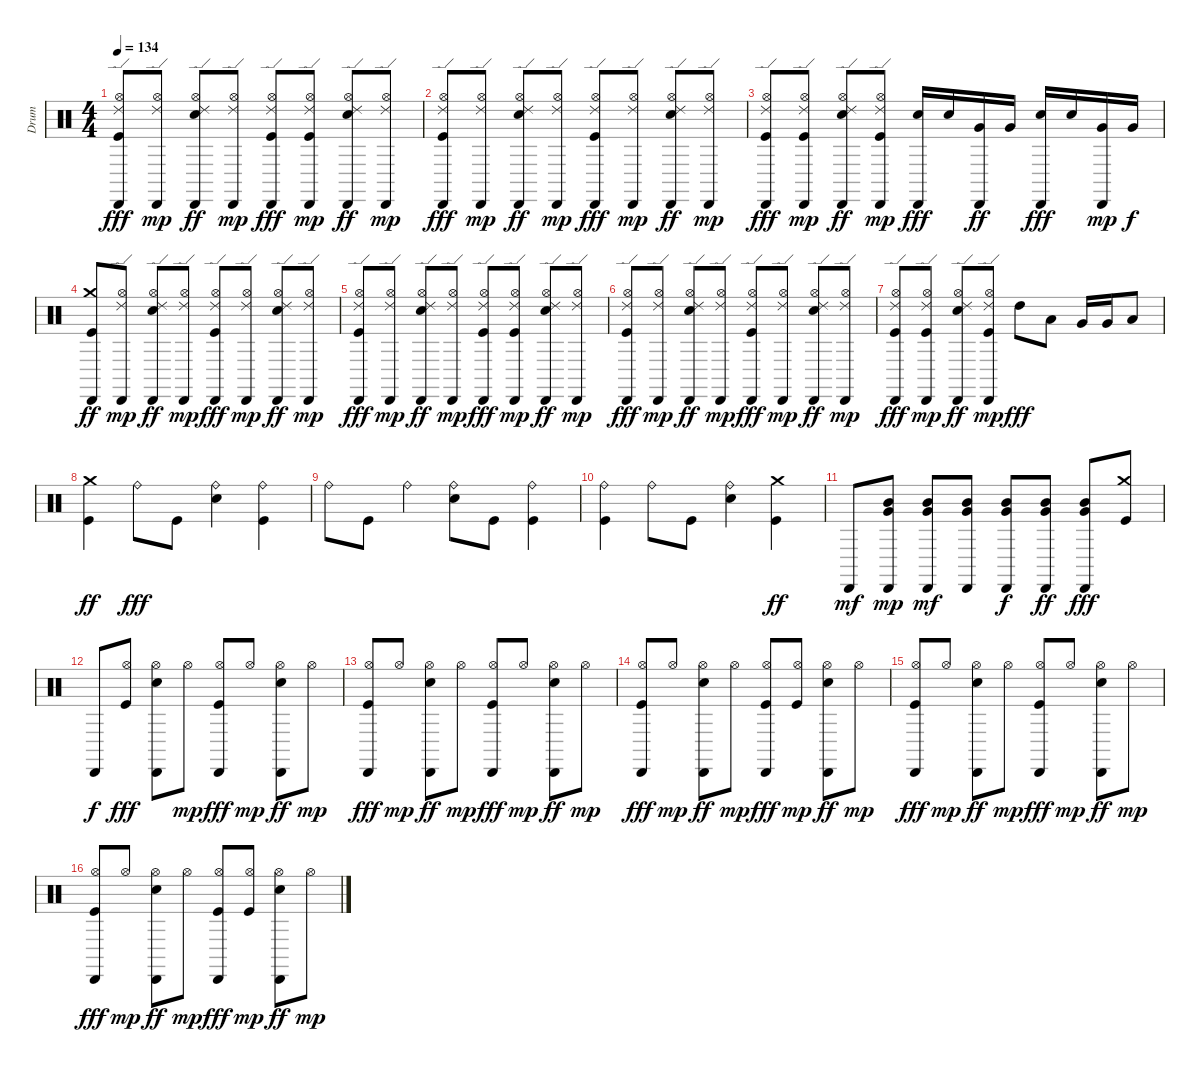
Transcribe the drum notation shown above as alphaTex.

\track ("Drum" "Drum") {instrument percussion}
\staff {score}
\articulation defaults
\ts (4 4)
\tempo 134
\clef neutral
\ks c
("Ride (edge) 2" "Kick (hit)" "Hi-Hat (open)" "Cabasa (hit)").8{dy fff} ("Cabasa (hit)" "Ride (edge) 2" "Hi-Hat (open)").8{dy mp} ("Electric Snare (hit)" "Cabasa (hit)" "Ride (edge) 2" "Hi-Hat (open)").8{dy ff} ("Cabasa (hit)" "Ride (edge) 2" "Hi-Hat (open)").8{dy mp} ("Cabasa (hit)" "Ride (edge) 2" "Kick (hit)" "Hi-Hat (open)").8{dy fff} ("Cabasa (hit)" "Kick (hit)" "Ride (edge) 2" "Hi-Hat (open)").8{dy mp} ("Cabasa (hit)" "Electric Snare (hit)" "Ride (edge) 2" "Hi-Hat (open)").8{dy ff} ("Cabasa (hit)" "Ride (edge) 2" "Hi-Hat (open)").8{dy mp} |
("Ride (edge) 2" "Kick (hit)" "Hi-Hat (open)" "Cabasa (hit)").8{dy fff} ("Cabasa (hit)" "Ride (edge) 2" "Hi-Hat (open)").8{dy mp} ("Electric Snare (hit)" "Cabasa (hit)" "Ride (edge) 2" "Hi-Hat (open)").8{dy ff} ("Cabasa (hit)" "Ride (edge) 2" "Hi-Hat (open)").8{dy mp} ("Cabasa (hit)" "Ride (edge) 2" "Kick (hit)" "Hi-Hat (open)").8{dy fff} ("Cabasa (hit)" "Ride (edge) 2" "Hi-Hat (open)").8{dy mp} ("Cabasa (hit)" "Electric Snare (hit)" "Ride (edge) 2" "Hi-Hat (open)").8{dy ff} ("Cabasa (hit)" "Ride (edge) 2" "Hi-Hat (open)").8{dy mp} |
("Cabasa (hit)" "Ride (edge) 2" "Kick (hit)" "Hi-Hat (open)").8{dy fff} ("Cabasa (hit)" "Kick (hit)" "Ride (edge) 2" "Hi-Hat (open)").8{dy mp} ("Cabasa (hit)" "Electric Snare (hit)" "Ride (edge) 2" "Hi-Hat (open)").8{dy ff} ("Cabasa (hit)" "Kick (hit)" "Ride (edge) 2" "Hi-Hat (open)").8{dy mp} ("Cabasa (hit)" "Electric Snare (hit)").16{dy fff} "Electric Snare (hit)".16 ("Cabasa (hit)" "Very Low Tom (hit)").16{dy ff} "Very Low Tom (hit)".16 ("Cabasa (hit)" "Electric Snare (hit)").16{dy fff} "Electric Snare (hit)".16 ("Cabasa (hit)" "Very Low Tom (hit)").16{dy mp} "Very Low Tom (hit)".16{dy f} |
("Kick (hit)" "Crash medium (hit)" "Cabasa (hit)").8{dy ff} ("Cabasa (hit)" "Ride (edge) 2" "Hi-Hat (open)").8{dy mp} ("Electric Snare (hit)" "Cabasa (hit)" "Ride (edge) 2" "Hi-Hat (open)").8{dy ff} ("Cabasa (hit)" "Ride (edge) 2" "Hi-Hat (open)").8{dy mp} ("Cabasa (hit)" "Ride (edge) 2" "Kick (hit)" "Hi-Hat (open)").8{dy fff} ("Cabasa (hit)" "Ride (edge) 2" "Hi-Hat (open)").8{dy mp} ("Cabasa (hit)" "Electric Snare (hit)" "Ride (edge) 2" "Hi-Hat (open)").8{dy ff} ("Cabasa (hit)" "Ride (edge) 2" "Hi-Hat (open)").8{dy mp} |
("Cabasa (hit)" "Ride (edge) 2" "Kick (hit)" "Hi-Hat (open)").8{dy fff} ("Cabasa (hit)" "Ride (edge) 2" "Hi-Hat (open)").8{dy mp} ("Cabasa (hit)" "Electric Snare (hit)" "Ride (edge) 2" "Hi-Hat (open)").8{dy ff} ("Cabasa (hit)" "Ride (edge) 2" "Hi-Hat (open)").8{dy mp} ("Cabasa (hit)" "Ride (edge) 2" "Kick (hit)" "Hi-Hat (open)").8{dy fff} ("Cabasa (hit)" "Kick (hit)" "Ride (edge) 2" "Hi-Hat (open)").8{dy mp} ("Cabasa (hit)" "Electric Snare (hit)" "Ride (edge) 2" "Hi-Hat (open)").8{dy ff} ("Cabasa (hit)" "Ride (edge) 2" "Hi-Hat (open)").8{dy mp} |
("Ride (edge) 2" "Kick (hit)" "Hi-Hat (open)" "Cabasa (hit)").8{dy fff} ("Cabasa (hit)" "Ride (edge) 2" "Hi-Hat (open)").8{dy mp} ("Electric Snare (hit)" "Cabasa (hit)" "Ride (edge) 2" "Hi-Hat (open)").8{dy ff} ("Cabasa (hit)" "Ride (edge) 2" "Hi-Hat (open)").8{dy mp} ("Cabasa (hit)" "Ride (edge) 2" "Kick (hit)" "Hi-Hat (open)").8{dy fff} ("Cabasa (hit)" "Ride (edge) 2" "Hi-Hat (open)").8{dy mp} ("Cabasa (hit)" "Electric Snare (hit)" "Ride (edge) 2" "Hi-Hat (open)").8{dy ff} ("Cabasa (hit)" "Ride (edge) 2" "Hi-Hat (open)").8{dy mp} |
("Ride (edge) 2" "Kick (hit)" "Hi-Hat (open)" "Cabasa (hit)").8{dy fff} ("Cabasa (hit)" "Kick (hit)" "Ride (edge) 2" "Hi-Hat (open)").8{dy mp} ("Electric Snare (hit)" "Cabasa (hit)" "Ride (edge) 2" "Hi-Hat (open)").8{dy ff} ("Cabasa (hit)" "Kick (hit)" "Ride (edge) 2" "Hi-Hat (open)").8{dy mp} "High Tom (hit)".8{dy fff} "Low Tom (hit)".8 "Very Low Tom (hit)".16 "Very Low Tom (hit)".16 "Low Floor Tom (hit)".8 |
("Kick (hit)" "Crash medium (hit)").4{dy ff} "Ride (bell)".8{dy fff} "Kick (hit)".8 ("Electric Snare (hit)" "Ride (bell)").4 ("Kick (hit)" "Ride (bell)").4 |
"Ride (bell)".8 "Kick (hit)".8 "Ride (bell)".4 ("Electric Snare (hit)" "Ride (bell)").8 "Kick (hit)".8 ("Kick (hit)" "Ride (bell)").4 |
("Kick (hit)" "Ride (bell)").4 "Ride (bell)".8 "Kick (hit)".8 ("Electric Snare (hit)" "Ride (bell)").4 ("Kick (hit)" "Crash medium (hit)").4{dy ff} |
"Cabasa (hit)".8{dy mf} ("Cabasa (hit)" "Mid Tom (hit)" "Very Low Tom (hit)").8{dy mp} ("Cabasa (hit)" "Mid Tom (hit)" "Very Low Tom (hit)").8{dy mf} ("Cabasa (hit)" "Mid Tom (hit)" "Very Low Tom (hit)").8 ("Cabasa (hit)" "Mid Tom (hit)" "Very Low Tom (hit)").8{dy f} ("Cabasa (hit)" "Mid Tom (hit)" "Very Low Tom (hit)").8{dy ff} ("Cabasa (hit)" "Mid Tom (hit)" "Very Low Tom (hit)").8{dy fff} ("Crash medium (hit)" "Kick (hit)").8 |
"Cabasa (hit)".8{dy f} ("Hi-Hat (open)" "Kick (hit)").8{dy fff} ("Cabasa (hit)" "Hi-Hat (open)" "Electric Snare (hit)").8 "Hi-Hat (open)".8{dy mp} ("Cabasa (hit)" "Kick (hit)" "Hi-Hat (open)").8{dy fff} "Hi-Hat (open)".8{dy mp} ("Cabasa (hit)" "Electric Snare (hit)" "Hi-Hat (open)").8{dy ff} "Hi-Hat (open)".8{dy mp} |
("Kick (hit)" "Hi-Hat (open)" "Cabasa (hit)").8{dy fff} "Hi-Hat (open)".8{dy mp} ("Electric Snare (hit)" "Cabasa (hit)" "Hi-Hat (open)").8{dy ff} "Hi-Hat (open)".8{dy mp} ("Cabasa (hit)" "Kick (hit)" "Hi-Hat (open)").8{dy fff} "Hi-Hat (open)".8{dy mp} ("Cabasa (hit)" "Electric Snare (hit)" "Hi-Hat (open)").8{dy ff} "Hi-Hat (open)".8{dy mp} |
("Kick (hit)" "Hi-Hat (open)" "Cabasa (hit)").8{dy fff} "Hi-Hat (open)".8{dy mp} ("Electric Snare (hit)" "Cabasa (hit)" "Hi-Hat (open)").8{dy ff} "Hi-Hat (open)".8{dy mp} ("Cabasa (hit)" "Kick (hit)" "Hi-Hat (open)").8{dy fff} ("Kick (hit)" "Hi-Hat (open)").8{dy mp} ("Cabasa (hit)" "Electric Snare (hit)" "Hi-Hat (open)").8{dy ff} "Hi-Hat (open)".8{dy mp} |
("Kick (hit)" "Hi-Hat (open)" "Cabasa (hit)").8{dy fff} "Hi-Hat (open)".8{dy mp} ("Electric Snare (hit)" "Cabasa (hit)" "Hi-Hat (open)").8{dy ff} "Hi-Hat (open)".8{dy mp} ("Cabasa (hit)" "Kick (hit)" "Hi-Hat (open)").8{dy fff} "Hi-Hat (open)".8{dy mp} ("Cabasa (hit)" "Electric Snare (hit)" "Hi-Hat (open)").8{dy ff} "Hi-Hat (open)".8{dy mp} |
("Cabasa (hit)" "Kick (hit)" "Hi-Hat (open)").8{dy fff} "Hi-Hat (open)".8{dy mp} ("Cabasa (hit)" "Electric Snare (hit)" "Hi-Hat (open)").8{dy ff} "Hi-Hat (open)".8{dy mp} ("Cabasa (hit)" "Kick (hit)" "Hi-Hat (open)").8{dy fff} ("Kick (hit)" "Hi-Hat (open)").8{dy mp} ("Cabasa (hit)" "Electric Snare (hit)" "Hi-Hat (open)").8{dy ff} "Hi-Hat (open)".8{dy mp}
